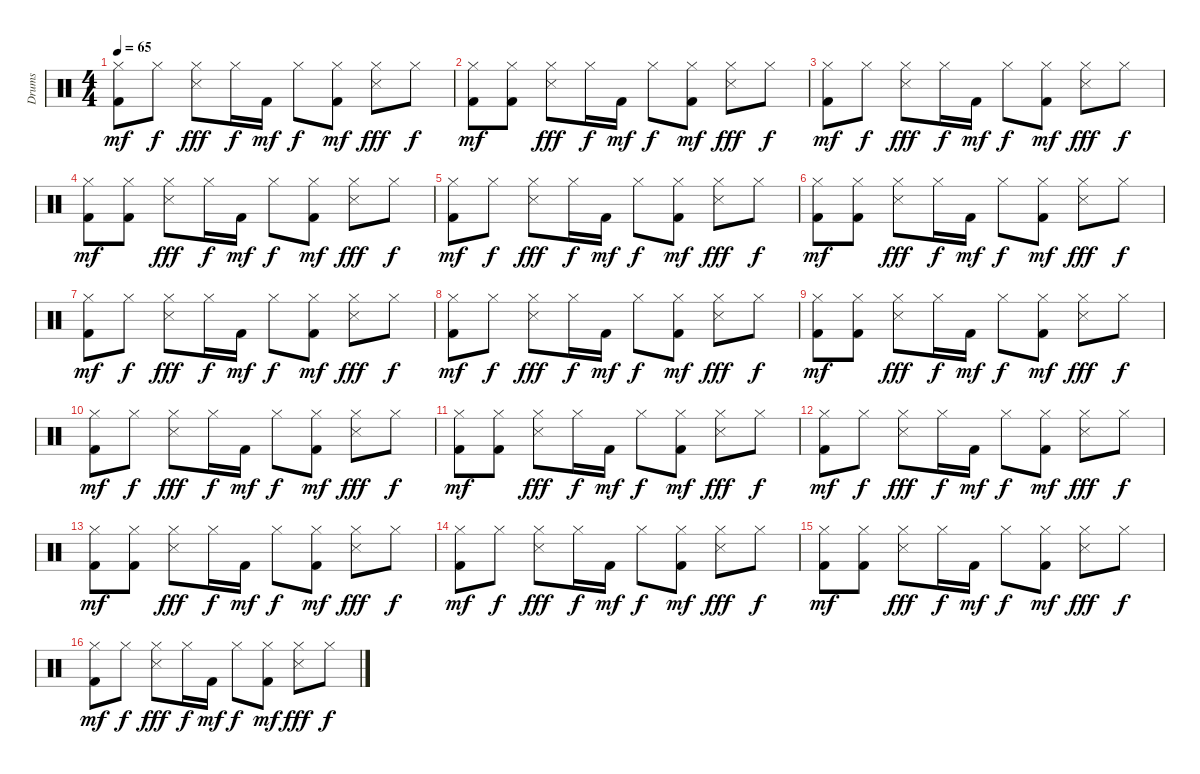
\track ("Drums" "Drums") {instrument percussion}
\staff {score}
\articulation defaults
\ts (4 4)
\tempo 65
\clef neutral
\ks c
("Hi-Hat (closed)" "Kick (hit) 2").8{dy mf} "Hi-Hat (closed)".8{dy f} ("Hi-Hat (closed)" "Snare (side stick) 3").8{dy fff} "Hi-Hat (closed)".16{dy f} "Kick (hit) 2".16{dy mf} "Hi-Hat (closed)".8{dy f} ("Hi-Hat (closed)" "Kick (hit) 2").8{dy mf} ("Hi-Hat (closed)" "Snare (side stick) 3").8{dy fff} "Hi-Hat (closed)".8{dy f} |
("Hi-Hat (closed)" "Kick (hit) 2").8{dy mf} ("Hi-Hat (closed)" "Kick (hit) 2").8 ("Hi-Hat (closed)" "Snare (side stick) 3").8{dy fff} "Hi-Hat (closed)".16{dy f} "Kick (hit) 2".16{dy mf} "Hi-Hat (closed)".8{dy f} ("Hi-Hat (closed)" "Kick (hit) 2").8{dy mf} ("Hi-Hat (closed)" "Snare (side stick) 3").8{dy fff} "Hi-Hat (closed)".8{dy f} |
("Hi-Hat (closed)" "Kick (hit) 2").8{dy mf} "Hi-Hat (closed)".8{dy f} ("Hi-Hat (closed)" "Snare (side stick) 3").8{dy fff} "Hi-Hat (closed)".16{dy f} "Kick (hit) 2".16{dy mf} "Hi-Hat (closed)".8{dy f} ("Hi-Hat (closed)" "Kick (hit) 2").8{dy mf} ("Hi-Hat (closed)" "Snare (side stick) 3").8{dy fff} "Hi-Hat (closed)".8{dy f} |
("Hi-Hat (closed)" "Kick (hit) 2").8{dy mf} ("Hi-Hat (closed)" "Kick (hit) 2").8 ("Hi-Hat (closed)" "Snare (side stick) 3").8{dy fff} "Hi-Hat (closed)".16{dy f} "Kick (hit) 2".16{dy mf} "Hi-Hat (closed)".8{dy f} ("Hi-Hat (closed)" "Kick (hit) 2").8{dy mf} ("Hi-Hat (closed)" "Snare (side stick) 3").8{dy fff} "Hi-Hat (closed)".8{dy f} |
("Hi-Hat (closed)" "Kick (hit) 2").8{dy mf} "Hi-Hat (closed)".8{dy f} ("Hi-Hat (closed)" "Snare (side stick) 3").8{dy fff} "Hi-Hat (closed)".16{dy f} "Kick (hit) 2".16{dy mf} "Hi-Hat (closed)".8{dy f} ("Hi-Hat (closed)" "Kick (hit) 2").8{dy mf} ("Hi-Hat (closed)" "Snare (side stick) 3").8{dy fff} "Hi-Hat (closed)".8{dy f} |
("Hi-Hat (closed)" "Kick (hit) 2").8{dy mf} ("Hi-Hat (closed)" "Kick (hit) 2").8 ("Hi-Hat (closed)" "Snare (side stick) 3").8{dy fff} "Hi-Hat (closed)".16{dy f} "Kick (hit) 2".16{dy mf} "Hi-Hat (closed)".8{dy f} ("Hi-Hat (closed)" "Kick (hit) 2").8{dy mf} ("Hi-Hat (closed)" "Snare (side stick) 3").8{dy fff} "Hi-Hat (closed)".8{dy f} |
("Hi-Hat (closed)" "Kick (hit) 2").8{dy mf} "Hi-Hat (closed)".8{dy f} ("Hi-Hat (closed)" "Snare (side stick) 3").8{dy fff} "Hi-Hat (closed)".16{dy f} "Kick (hit) 2".16{dy mf} "Hi-Hat (closed)".8{dy f} ("Hi-Hat (closed)" "Kick (hit) 2").8{dy mf} ("Hi-Hat (closed)" "Snare (side stick) 3").8{dy fff} "Hi-Hat (closed)".8{dy f} |
("Hi-Hat (closed)" "Kick (hit) 2").8{dy mf} "Hi-Hat (closed)".8{dy f} ("Hi-Hat (closed)" "Snare (side stick) 3").8{dy fff} "Hi-Hat (closed)".16{dy f} "Kick (hit) 2".16{dy mf} "Hi-Hat (closed)".8{dy f} ("Hi-Hat (closed)" "Kick (hit) 2").8{dy mf} ("Hi-Hat (closed)" "Snare (side stick) 3").8{dy fff} "Hi-Hat (closed)".8{dy f} |
("Hi-Hat (closed)" "Kick (hit) 2").8{dy mf} ("Hi-Hat (closed)" "Kick (hit) 2").8 ("Hi-Hat (closed)" "Snare (side stick) 3").8{dy fff} "Hi-Hat (closed)".16{dy f} "Kick (hit) 2".16{dy mf} "Hi-Hat (closed)".8{dy f} ("Hi-Hat (closed)" "Kick (hit) 2").8{dy mf} ("Hi-Hat (closed)" "Snare (side stick) 3").8{dy fff} "Hi-Hat (closed)".8{dy f} |
("Hi-Hat (closed)" "Kick (hit) 2").8{dy mf} "Hi-Hat (closed)".8{dy f} ("Hi-Hat (closed)" "Snare (side stick) 3").8{dy fff} "Hi-Hat (closed)".16{dy f} "Kick (hit) 2".16{dy mf} "Hi-Hat (closed)".8{dy f} ("Hi-Hat (closed)" "Kick (hit) 2").8{dy mf} ("Hi-Hat (closed)" "Snare (side stick) 3").8{dy fff} "Hi-Hat (closed)".8{dy f} |
("Hi-Hat (closed)" "Kick (hit) 2").8{dy mf} ("Hi-Hat (closed)" "Kick (hit) 2").8 ("Hi-Hat (closed)" "Snare (side stick) 3").8{dy fff} "Hi-Hat (closed)".16{dy f} "Kick (hit) 2".16{dy mf} "Hi-Hat (closed)".8{dy f} ("Hi-Hat (closed)" "Kick (hit) 2").8{dy mf} ("Hi-Hat (closed)" "Snare (side stick) 3").8{dy fff} "Hi-Hat (closed)".8{dy f} |
("Hi-Hat (closed)" "Kick (hit) 2").8{dy mf} "Hi-Hat (closed)".8{dy f} ("Hi-Hat (closed)" "Snare (side stick) 3").8{dy fff} "Hi-Hat (closed)".16{dy f} "Kick (hit) 2".16{dy mf} "Hi-Hat (closed)".8{dy f} ("Hi-Hat (closed)" "Kick (hit) 2").8{dy mf} ("Hi-Hat (closed)" "Snare (side stick) 3").8{dy fff} "Hi-Hat (closed)".8{dy f} |
("Hi-Hat (closed)" "Kick (hit) 2").8{dy mf} ("Hi-Hat (closed)" "Kick (hit) 2").8 ("Hi-Hat (closed)" "Snare (side stick) 3").8{dy fff} "Hi-Hat (closed)".16{dy f} "Kick (hit) 2".16{dy mf} "Hi-Hat (closed)".8{dy f} ("Hi-Hat (closed)" "Kick (hit) 2").8{dy mf} ("Hi-Hat (closed)" "Snare (side stick) 3").8{dy fff} "Hi-Hat (closed)".8{dy f} |
("Hi-Hat (closed)" "Kick (hit) 2").8{dy mf} "Hi-Hat (closed)".8{dy f} ("Hi-Hat (closed)" "Snare (side stick) 3").8{dy fff} "Hi-Hat (closed)".16{dy f} "Kick (hit) 2".16{dy mf} "Hi-Hat (closed)".8{dy f} ("Hi-Hat (closed)" "Kick (hit) 2").8{dy mf} ("Hi-Hat (closed)" "Snare (side stick) 3").8{dy fff} "Hi-Hat (closed)".8{dy f} |
("Hi-Hat (closed)" "Kick (hit) 2").8{dy mf} ("Hi-Hat (closed)" "Kick (hit) 2").8 ("Hi-Hat (closed)" "Snare (side stick) 3").8{dy fff} "Hi-Hat (closed)".16{dy f} "Kick (hit) 2".16{dy mf} "Hi-Hat (closed)".8{dy f} ("Hi-Hat (closed)" "Kick (hit) 2").8{dy mf} ("Hi-Hat (closed)" "Snare (side stick) 3").8{dy fff} "Hi-Hat (closed)".8{dy f} |
("Hi-Hat (closed)" "Kick (hit) 2").8{dy mf} "Hi-Hat (closed)".8{dy f} ("Hi-Hat (closed)" "Snare (side stick) 3").8{dy fff} "Hi-Hat (closed)".16{dy f} "Kick (hit) 2".16{dy mf} "Hi-Hat (closed)".8{dy f} ("Hi-Hat (closed)" "Kick (hit) 2").8{dy mf} ("Hi-Hat (closed)" "Snare (side stick) 3").8{dy fff} "Hi-Hat (closed)".8{dy f}
